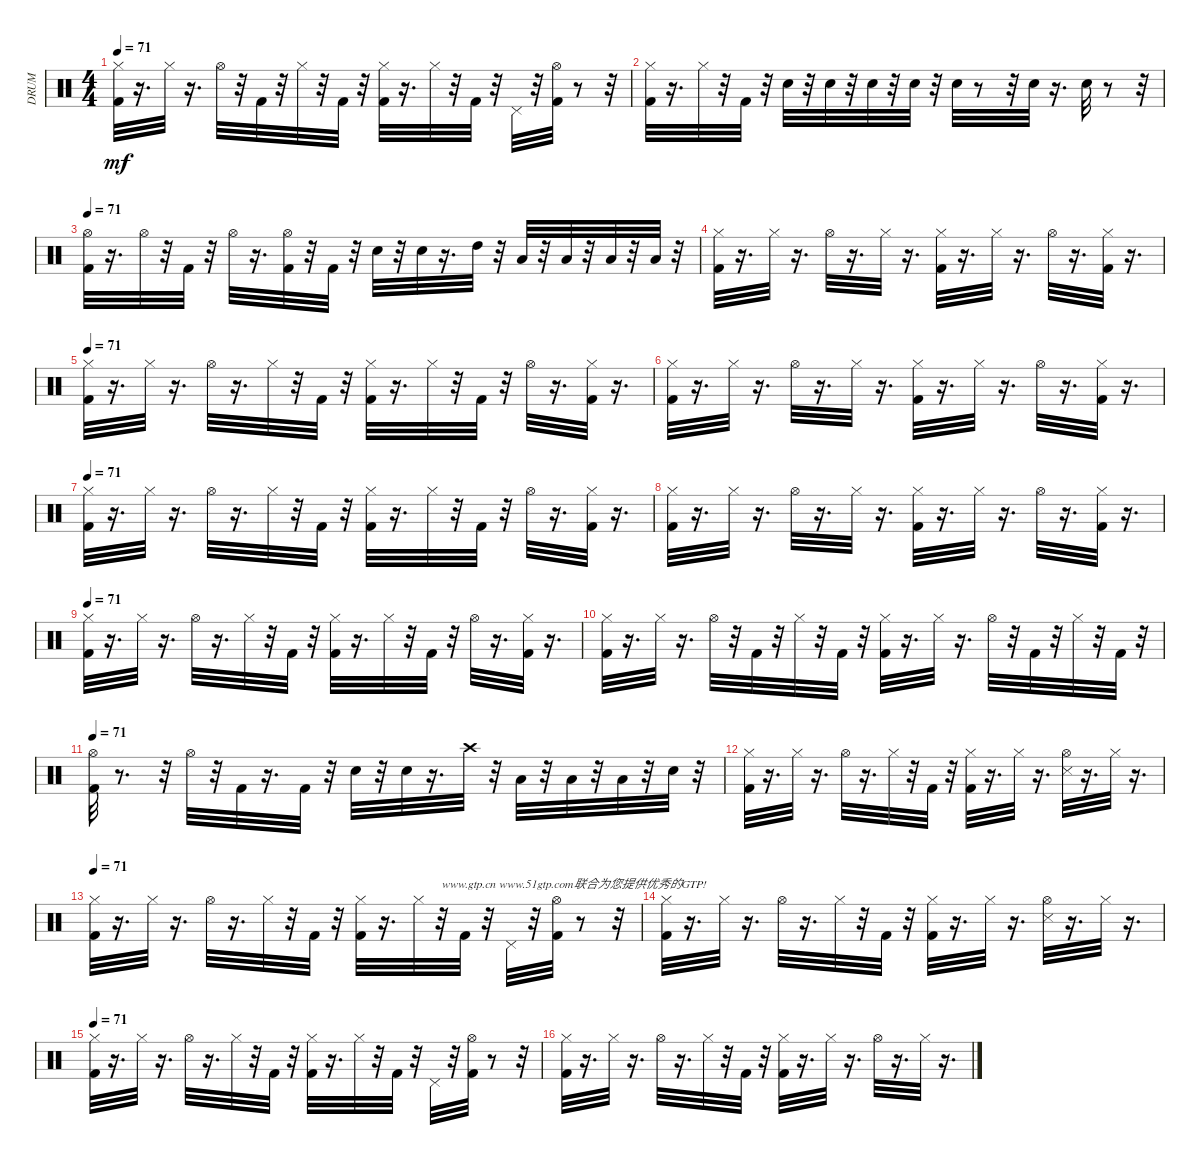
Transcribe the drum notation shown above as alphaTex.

\track ("DRUM" "DRUM") {instrument percussion}
\staff {score}
\articulation defaults
\ts (4 4)
\tempo 71
\clef neutral
\ks c
("Kick (hit) 2" "Hi-Hat (closed)").32{dy mf} r.16{d} "Hi-Hat (closed)".32 r.16{d} "Hi-Hat (open)".32 r.32 "Kick (hit) 2".32 r.32 "Hi-Hat (closed)".32 r.32 "Kick (hit) 2".32 r.32 ("Kick (hit) 2" "Hi-Hat (closed)").32 r.16{d} "Hi-Hat (closed)".32 r.32 "Kick (hit) 2".32 r.32 "Pedal Hi-Hat (hit)".32 r.32 ("Kick (hit) 2" "Hi-Hat (open)").32 r.8 r.32 |
("Kick (hit) 2" "Hi-Hat (closed)").32 r.16{d} "Hi-Hat (closed)".32 r.32 "Kick (hit) 2".32 r.32 "Snare (hit) 2".32 r.32 "Snare (hit) 2".32 r.32 "Snare (hit) 2".32 r.32 "Snare (hit) 2".32 r.32 "Snare (hit) 2".32 r.8 r.32 "Snare (hit) 2".32 r.16{d} "Snare (hit) 2".32 r.8 r.32 |
\tempo 71
("Kick (hit) 2" "Hi-Hat (open)").32 r.16{d} "Hi-Hat (open)".32 r.32 "Kick (hit) 2".32 r.32 "Hi-Hat (open)".32 r.16{d} ("Kick (hit) 2" "Hi-Hat (open)").32 r.32 "Kick (hit) 2".32 r.32 "Snare (hit) 2".32 r.32 "Snare (hit) 2".32 r.16{d} "High Tom (hit)".32 r.32 "Low Tom (hit)".32 r.32 "Low Tom (hit)".32 r.32 "Low Floor Tom (hit)".32 r.32 "Low Floor Tom (hit)".32 r.32 |
("Kick (hit) 2" "Hi-Hat (closed)").32 r.16{d} "Hi-Hat (closed)".32 r.16{d} "Hi-Hat (open)".32 r.16{d} "Hi-Hat (closed)".32 r.16{d} ("Kick (hit) 2" "Hi-Hat (closed)").32 r.16{d} "Hi-Hat (closed)".32 r.16{d} "Hi-Hat (open)".32 r.16{d} ("Kick (hit) 2" "Hi-Hat (closed)").32 r.16{d} |
\tempo 71
("Kick (hit) 2" "Hi-Hat (closed)").32 r.16{d} "Hi-Hat (closed)".32 r.16{d} "Hi-Hat (open)".32 r.16{d} "Hi-Hat (closed)".32 r.32 "Kick (hit) 2".32 r.32 ("Kick (hit) 2" "Hi-Hat (closed)").32 r.16{d} "Hi-Hat (closed)".32 r.32 "Kick (hit) 2".32 r.32 "Hi-Hat (open)".32 r.16{d} ("Kick (hit) 2" "Hi-Hat (closed)").32 r.16{d} |
("Kick (hit) 2" "Hi-Hat (closed)").32 r.16{d} "Hi-Hat (closed)".32 r.16{d} "Hi-Hat (open)".32 r.16{d} "Hi-Hat (closed)".32 r.16{d} ("Kick (hit) 2" "Hi-Hat (closed)").32 r.16{d} "Hi-Hat (closed)".32 r.16{d} "Hi-Hat (open)".32 r.16{d} ("Kick (hit) 2" "Hi-Hat (closed)").32 r.16{d} |
\tempo 71
("Kick (hit) 2" "Hi-Hat (closed)").32 r.16{d} "Hi-Hat (closed)".32 r.16{d} "Hi-Hat (open)".32 r.16{d} "Hi-Hat (closed)".32 r.32 "Kick (hit) 2".32 r.32 ("Kick (hit) 2" "Hi-Hat (closed)").32 r.16{d} "Hi-Hat (closed)".32 r.32 "Kick (hit) 2".32 r.32 "Hi-Hat (open)".32 r.16{d} ("Kick (hit) 2" "Hi-Hat (closed)").32 r.16{d} |
("Kick (hit) 2" "Hi-Hat (closed)").32 r.16{d} "Hi-Hat (closed)".32 r.16{d} "Hi-Hat (open)".32 r.16{d} "Hi-Hat (closed)".32 r.16{d} ("Kick (hit) 2" "Hi-Hat (closed)").32 r.16{d} "Hi-Hat (closed)".32 r.16{d} "Hi-Hat (open)".32 r.16{d} ("Kick (hit) 2" "Hi-Hat (closed)").32 r.16{d} |
\tempo 71
("Kick (hit) 2" "Hi-Hat (closed)").32 r.16{d} "Hi-Hat (closed)".32 r.16{d} "Hi-Hat (open)".32 r.16{d} "Hi-Hat (closed)".32 r.32 "Kick (hit) 2".32 r.32 ("Kick (hit) 2" "Hi-Hat (closed)").32 r.16{d} "Hi-Hat (closed)".32 r.32 "Kick (hit) 2".32 r.32 "Hi-Hat (open)".32 r.16{d} ("Kick (hit) 2" "Hi-Hat (closed)").32 r.16{d} |
("Kick (hit) 2" "Hi-Hat (closed)").32 r.16{d} "Hi-Hat (closed)".32 r.16{d} "Hi-Hat (open)".32 r.32 "Kick (hit) 2".32 r.32 "Hi-Hat (closed)".32 r.32 "Kick (hit) 2".32 r.32 ("Kick (hit) 2" "Hi-Hat (closed)").32 r.16{d} "Hi-Hat (closed)".32 r.16{d} "Hi-Hat (open)".32 r.32 "Kick (hit) 2".32 r.32 "Hi-Hat (closed)".32 r.32 "Kick (hit) 2".32 r.32 |
\tempo 71
("Kick (hit) 2" "Hi-Hat (open)").32 r.8{d} r.32 "Hi-Hat (open)".32 r.32 "Kick (hit) 2".32 r.16{d} "Kick (hit) 2".32 r.32 "Snare (hit) 2".32 r.32 "Snare (hit) 2".32 r.16{d} "Crash high (hit)".32 r.32 "Low Tom (hit)".32 r.32 "Low Tom (hit)".32 r.32 "Low Floor Tom (hit)".32 r.32 "Snare (hit) 2".32 r.32 |
("Kick (hit) 2" "Hi-Hat (closed)").32 r.16{d} "Hi-Hat (closed)".32 r.16{d} "Hi-Hat (open)".32 r.16{d} "Hi-Hat (closed)".32 r.32 "Kick (hit) 2".32 r.32 ("Kick (hit) 2" "Hi-Hat (closed)").32 r.16{d} "Hi-Hat (closed)".32 r.16{d} ("Snare (side stick) 3" "Hi-Hat (open)").32 r.16{d} "Hi-Hat (closed)".32 r.16{d} |
\tempo 71
("Kick (hit) 2" "Hi-Hat (closed)").32 r.16{d} "Hi-Hat (closed)".32 r.16{d} "Hi-Hat (open)".32 r.16{d} "Hi-Hat (closed)".32 r.32 "Kick (hit) 2".32 r.32 ("Kick (hit) 2" "Hi-Hat (closed)").32 r.16{d} "Hi-Hat (closed)".32 r.32{txt "www.gtp.cn www.51gtp.com联合为您提供优秀的GTP!"} "Kick (hit) 2".32 r.32 "Pedal Hi-Hat (hit)".32 r.32 ("Kick (hit) 2" "Hi-Hat (open)").32 r.8 r.32 |
("Kick (hit) 2" "Hi-Hat (closed)").32 r.16{d} "Hi-Hat (closed)".32 r.16{d} "Hi-Hat (open)".32 r.16{d} "Hi-Hat (closed)".32 r.32 "Kick (hit) 2".32 r.32 ("Kick (hit) 2" "Hi-Hat (closed)").32 r.16{d} "Hi-Hat (closed)".32 r.16{d} ("Snare (side stick) 3" "Hi-Hat (open)").32 r.16{d} "Hi-Hat (closed)".32 r.16{d} |
\tempo 71
("Kick (hit) 2" "Hi-Hat (closed)").32 r.16{d} "Hi-Hat (closed)".32 r.16{d} "Hi-Hat (open)".32 r.16{d} "Hi-Hat (closed)".32 r.32 "Kick (hit) 2".32 r.32 ("Kick (hit) 2" "Hi-Hat (closed)").32 r.16{d} "Hi-Hat (closed)".32 r.32 "Kick (hit) 2".32 r.32 "Pedal Hi-Hat (hit)".32 r.32 ("Kick (hit) 2" "Hi-Hat (open)").32 r.8 r.32 |
("Kick (hit) 2" "Hi-Hat (closed)").32 r.16{d} "Hi-Hat (closed)".32 r.16{d} "Hi-Hat (open)".32 r.16{d} "Hi-Hat (closed)".32 r.32 "Kick (hit) 2".32 r.32 ("Kick (hit) 2" "Hi-Hat (closed)").32 r.16{d} "Hi-Hat (closed)".32 r.16{d} "Hi-Hat (open)".32 r.16{d} "Hi-Hat (closed)".32 r.16{d}
